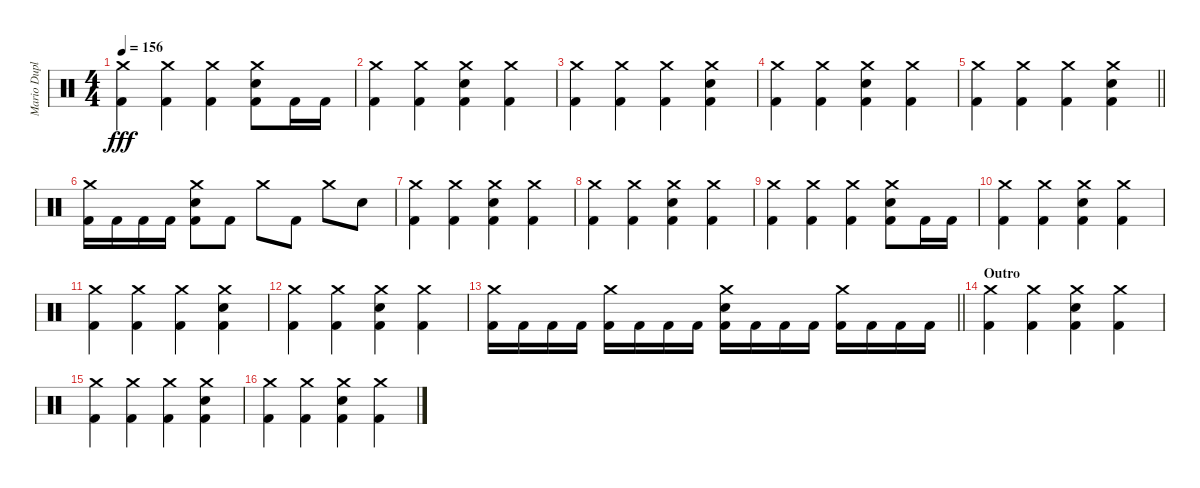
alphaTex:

\track ("Mario Duplantier" "Mario Dupl") {instrument percussion}
\staff {score}
\articulation defaults
\ts (4 4)
\tempo 156
\clef neutral
\ks c
("Crash medium (hit)" "Kick (hit) 2").4{dy fff} ("Crash medium (hit)" "Kick (hit) 2").4 ("Crash medium (hit)" "Kick (hit) 2").4 ("Crash medium (hit)" "Electric Snare (hit)" "Kick (hit) 2").8 "Kick (hit) 2".16 "Kick (hit) 2".16 |
("Crash medium (hit)" "Kick (hit) 2").4 ("Crash medium (hit)" "Kick (hit) 2").4 ("Crash medium (hit)" "Electric Snare (hit)" "Kick (hit) 2").4 ("Crash medium (hit)" "Kick (hit) 2").4 |
("Crash medium (hit)" "Kick (hit) 2").4 ("Crash medium (hit)" "Kick (hit) 2").4 ("Crash medium (hit)" "Kick (hit) 2").4 ("Crash medium (hit)" "Electric Snare (hit)" "Kick (hit) 2").4 |
("Crash medium (hit)" "Kick (hit) 2").4 ("Crash medium (hit)" "Kick (hit) 2").4 ("Crash medium (hit)" "Electric Snare (hit)" "Kick (hit) 2").4 ("Crash medium (hit)" "Kick (hit) 2").4 |
\barLineRight lightlight
("Crash medium (hit)" "Kick (hit) 2").4 ("Crash medium (hit)" "Kick (hit) 2").4 ("Crash medium (hit)" "Kick (hit) 2").4 ("Crash medium (hit)" "Electric Snare (hit)" "Kick (hit) 2").4 |
\section ("" "")
("Crash medium (hit)" "Kick (hit) 2").16 "Kick (hit) 2".16 "Kick (hit) 2".16 "Kick (hit) 2".16 ("Crash medium (hit)" "Electric Snare (hit)" "Kick (hit) 2").8 "Kick (hit) 2".8 "Crash medium (hit)".8 "Kick (hit) 2".8 "Crash medium (hit)".8 "Electric Snare (hit)".8 |
("Crash medium (hit)" "Kick (hit) 2").4 ("Crash medium (hit)" "Kick (hit) 2").4 ("Crash medium (hit)" "Electric Snare (hit)" "Kick (hit) 2").4 ("Crash medium (hit)" "Kick (hit) 2").4 |
("Crash medium (hit)" "Kick (hit) 2").4 ("Crash medium (hit)" "Kick (hit) 2").4 ("Crash medium (hit)" "Electric Snare (hit)" "Kick (hit) 2").4 ("Crash medium (hit)" "Kick (hit) 2").4 |
("Crash medium (hit)" "Kick (hit) 2").4 ("Crash medium (hit)" "Kick (hit) 2").4 ("Crash medium (hit)" "Kick (hit) 2").4 ("Crash medium (hit)" "Electric Snare (hit)" "Kick (hit) 2").8 "Kick (hit) 2".16 "Kick (hit) 2".16 |
("Crash medium (hit)" "Kick (hit) 2").4 ("Crash medium (hit)" "Kick (hit) 2").4 ("Crash medium (hit)" "Electric Snare (hit)" "Kick (hit) 2").4 ("Crash medium (hit)" "Kick (hit) 2").4 |
("Crash medium (hit)" "Kick (hit) 2").4 ("Crash medium (hit)" "Kick (hit) 2").4 ("Crash medium (hit)" "Kick (hit) 2").4 ("Crash medium (hit)" "Electric Snare (hit)" "Kick (hit) 2").4 |
("Crash medium (hit)" "Kick (hit) 2").4 ("Crash medium (hit)" "Kick (hit) 2").4 ("Crash medium (hit)" "Electric Snare (hit)" "Kick (hit) 2").4 ("Crash medium (hit)" "Kick (hit) 2").4 |
\barLineRight lightlight
("Crash medium (hit)" "Kick (hit) 2").16 "Kick (hit) 2".16 "Kick (hit) 2".16 "Kick (hit) 2".16 ("Crash medium (hit)" "Kick (hit) 2").16 "Kick (hit) 2".16 "Kick (hit) 2".16 "Kick (hit) 2".16 ("Crash medium (hit)" "Electric Snare (hit)" "Kick (hit) 2").16 "Kick (hit) 2".16 "Kick (hit) 2".16 "Kick (hit) 2".16 ("Crash medium (hit)" "Kick (hit) 2").16 "Kick (hit) 2".16 "Kick (hit) 2".16 "Kick (hit) 2".16 |
\section ("" "Outro")
("Crash medium (hit)" "Kick (hit) 2").4 ("Crash medium (hit)" "Kick (hit) 2").4 ("Crash medium (hit)" "Electric Snare (hit)" "Kick (hit) 2").4 ("Crash medium (hit)" "Kick (hit) 2").4 |
("Crash medium (hit)" "Kick (hit) 2").4 ("Crash medium (hit)" "Kick (hit) 2").4 ("Crash medium (hit)" "Kick (hit) 2").4 ("Crash medium (hit)" "Electric Snare (hit)" "Kick (hit) 2").4 |
("Crash medium (hit)" "Kick (hit) 2").4 ("Crash medium (hit)" "Kick (hit) 2").4 ("Crash medium (hit)" "Electric Snare (hit)" "Kick (hit) 2").4 ("Crash medium (hit)" "Kick (hit) 2").4
